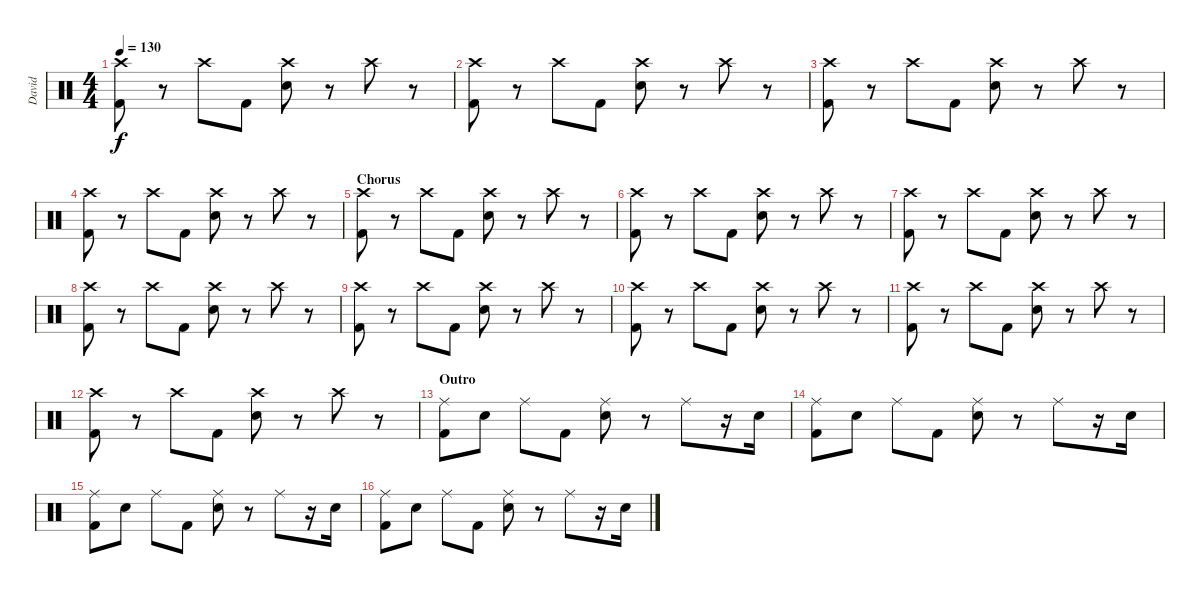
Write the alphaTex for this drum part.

\track ("David" "David") {instrument percussion}
\staff {score}
\articulation defaults
\ts (4 4)
\tempo 130
\clef neutral
\ks c
("Crash high (hit)" "Kick (hit) 2").8{dy f} r.8 "Crash high (hit)".8 "Kick (hit) 2".8 ("Crash high (hit)" "Snare (hit) 2").8 r.8 "Crash high (hit)".8 r.8 |
("Crash high (hit)" "Kick (hit) 2").8 r.8 "Crash high (hit)".8 "Kick (hit) 2".8 ("Crash high (hit)" "Snare (hit) 2").8 r.8 "Crash high (hit)".8 r.8 |
("Crash high (hit)" "Kick (hit) 2").8 r.8 "Crash high (hit)".8 "Kick (hit) 2".8 ("Crash high (hit)" "Snare (hit) 2").8 r.8 "Crash high (hit)".8 r.8 |
("Crash high (hit)" "Kick (hit) 2").8 r.8 "Crash high (hit)".8 "Kick (hit) 2".8 ("Crash high (hit)" "Snare (hit) 2").8 r.8 "Crash high (hit)".8 r.8 |
\section ("" "Chorus")
("Crash high (hit)" "Kick (hit) 2").8 r.8 "Crash high (hit)".8 "Kick (hit) 2".8 ("Crash high (hit)" "Snare (hit) 2").8 r.8 "Crash high (hit)".8 r.8 |
("Crash high (hit)" "Kick (hit) 2").8 r.8 "Crash high (hit)".8 "Kick (hit) 2".8 ("Crash high (hit)" "Snare (hit) 2").8 r.8 "Crash high (hit)".8 r.8 |
("Crash high (hit)" "Kick (hit) 2").8 r.8 "Crash high (hit)".8 "Kick (hit) 2".8 ("Crash high (hit)" "Snare (hit) 2").8 r.8 "Crash high (hit)".8 r.8 |
("Crash high (hit)" "Kick (hit) 2").8 r.8 "Crash high (hit)".8 "Kick (hit) 2".8 ("Crash high (hit)" "Snare (hit) 2").8 r.8 "Crash high (hit)".8 r.8 |
("Crash high (hit)" "Kick (hit) 2").8 r.8 "Crash high (hit)".8 "Kick (hit) 2".8 ("Crash high (hit)" "Snare (hit) 2").8 r.8 "Crash high (hit)".8 r.8 |
("Crash high (hit)" "Kick (hit) 2").8 r.8 "Crash high (hit)".8 "Kick (hit) 2".8 ("Crash high (hit)" "Snare (hit) 2").8 r.8 "Crash high (hit)".8 r.8 |
("Crash high (hit)" "Kick (hit) 2").8 r.8 "Crash high (hit)".8 "Kick (hit) 2".8 ("Crash high (hit)" "Snare (hit) 2").8 r.8 "Crash high (hit)".8 r.8 |
("Crash high (hit)" "Kick (hit) 2").8 r.8 "Crash high (hit)".8 "Kick (hit) 2".8 ("Crash high (hit)" "Snare (hit) 2").8 r.8 "Crash high (hit)".8 r.8 |
\section ("" "Outro")
("Ride (middle)" "Kick (hit) 2").8 "Snare (hit) 2".8 "Ride (middle)".8 "Kick (hit) 2".8 ("Ride (middle)" "Snare (hit) 2").8 r.8 "Ride (middle)".8 r.16 "Snare (hit) 2".16 |
("Ride (middle)" "Kick (hit) 2").8 "Snare (hit) 2".8 "Ride (middle)".8 "Kick (hit) 2".8 ("Ride (middle)" "Snare (hit) 2").8 r.8 "Ride (middle)".8 r.16 "Snare (hit) 2".16 |
("Ride (middle)" "Kick (hit) 2").8 "Snare (hit) 2".8 "Ride (middle)".8 "Kick (hit) 2".8 ("Ride (middle)" "Snare (hit) 2").8 r.8 "Ride (middle)".8 r.16 "Snare (hit) 2".16 |
("Ride (middle)" "Kick (hit) 2").8 "Snare (hit) 2".8 "Ride (middle)".8 "Kick (hit) 2".8 ("Ride (middle)" "Snare (hit) 2").8 r.8 "Ride (middle)".8 r.16 "Snare (hit) 2".16
